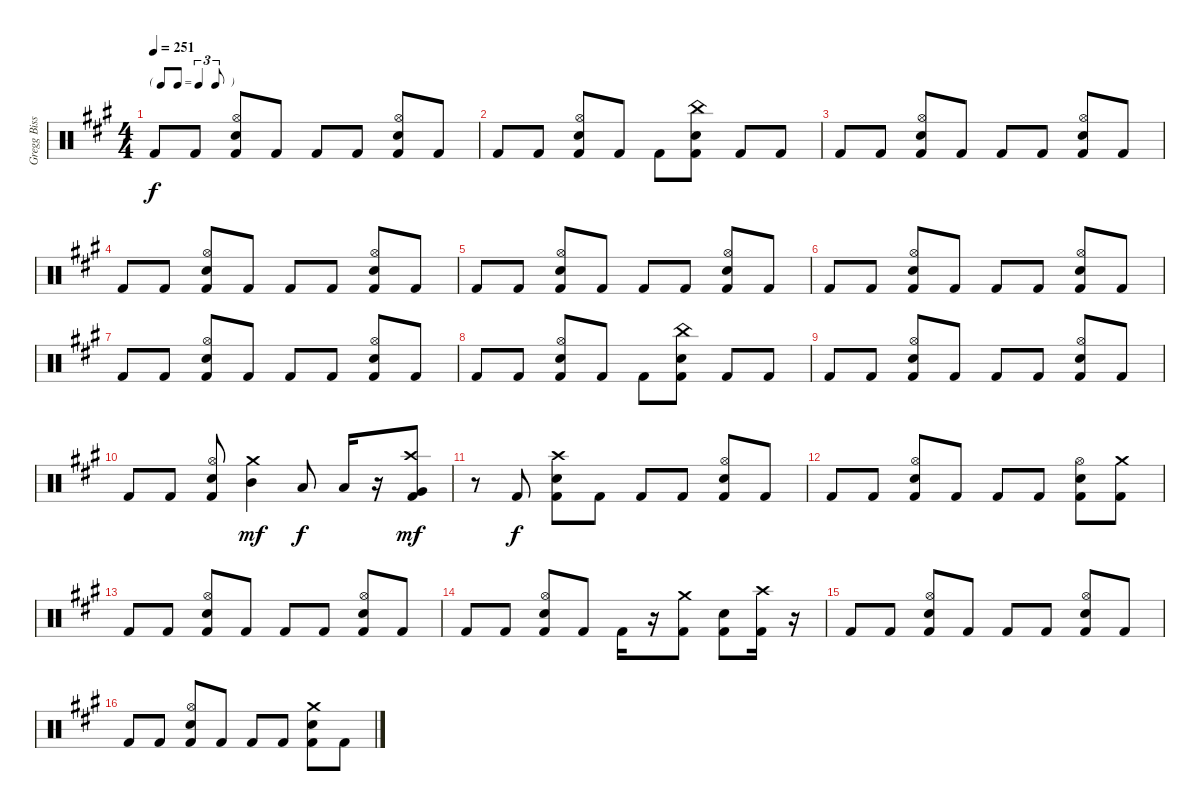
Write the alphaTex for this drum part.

\track ("Gregg Bissonette" "Gregg Biss") {instrument percussion}
\staff {score}
\articulation defaults
\ts (4 4)
\tf triplet8th
\tempo 251
\clef neutral
\ks f#minor "Kick (hit) 2".8{dy f} "Kick (hit) 2".8
("Hi-Hat (open)" "Electric Snare (hit)" "Kick (hit) 2").8 "Kick (hit) 2".8 "Kick (hit) 2".8 "Kick (hit) 2".8 ("Hi-Hat (open)" "Electric Snare (hit)" "Kick (hit) 2").8 "Kick (hit) 2".8 |
"Kick (hit) 2".8 "Kick (hit) 2".8 ("Hi-Hat (open)" "Electric Snare (hit)" "Kick (hit) 2").8 "Kick (hit) 2".8 "Kick (hit) 2".8 ("China (hit)" "Electric Snare (hit)" "Kick (hit) 2").8 "Kick (hit) 2".8 "Kick (hit) 2".8 |
"Kick (hit) 2".8 "Kick (hit) 2".8 ("Hi-Hat (open)" "Electric Snare (hit)" "Kick (hit) 2").8 "Kick (hit) 2".8 "Kick (hit) 2".8 "Kick (hit) 2".8 ("Hi-Hat (open)" "Electric Snare (hit)" "Kick (hit) 2").8 "Kick (hit) 2".8 |
"Kick (hit) 2".8 "Kick (hit) 2".8 ("Hi-Hat (open)" "Electric Snare (hit)" "Kick (hit) 2").8 "Kick (hit) 2".8 "Kick (hit) 2".8 "Kick (hit) 2".8 ("Hi-Hat (open)" "Electric Snare (hit)" "Kick (hit) 2").8 "Kick (hit) 2".8 |
"Kick (hit) 2".8 "Kick (hit) 2".8 ("Hi-Hat (open)" "Electric Snare (hit)" "Kick (hit) 2").8 "Kick (hit) 2".8 "Kick (hit) 2".8 "Kick (hit) 2".8 ("Hi-Hat (open)" "Electric Snare (hit)" "Kick (hit) 2").8 "Kick (hit) 2".8 |
"Kick (hit) 2".8 "Kick (hit) 2".8 ("Hi-Hat (open)" "Electric Snare (hit)" "Kick (hit) 2").8 "Kick (hit) 2".8 "Kick (hit) 2".8 "Kick (hit) 2".8 ("Hi-Hat (open)" "Electric Snare (hit)" "Kick (hit) 2").8 "Kick (hit) 2".8 |
"Kick (hit) 2".8 "Kick (hit) 2".8 ("Hi-Hat (open)" "Electric Snare (hit)" "Kick (hit) 2").8 "Kick (hit) 2".8 "Kick (hit) 2".8 "Kick (hit) 2".8 ("Hi-Hat (open)" "Electric Snare (hit)" "Kick (hit) 2").8 "Kick (hit) 2".8 |
"Kick (hit) 2".8 "Kick (hit) 2".8 ("Hi-Hat (open)" "Electric Snare (hit)" "Kick (hit) 2").8 "Kick (hit) 2".8 "Kick (hit) 2".8 ("China (hit)" "Electric Snare (hit)" "Kick (hit) 2").8 "Kick (hit) 2".8 "Kick (hit) 2".8 |
"Kick (hit) 2".8 "Kick (hit) 2".8 ("Hi-Hat (open)" "Electric Snare (hit)" "Kick (hit) 2").8 "Kick (hit) 2".8 "Kick (hit) 2".8 "Kick (hit) 2".8 ("Hi-Hat (open)" "Electric Snare (hit)" "Kick (hit) 2").8 "Kick (hit) 2".8 |
"Kick (hit) 2".8 "Kick (hit) 2".8 ("Hi-Hat (open)" "Electric Snare (hit)" "Kick (hit) 2").8 ("Crash medium (hit)" "Mid Tom (hit)").4{dy mf} "Low Tom (hit)".8{dy f} "Low Tom (hit)".16 r.16 ("Crash high (hit)" "Very Low Tom (hit)" "Kick (hit) 2").8{dy mf} |
r.8 "Kick (hit) 2".8{dy f} ("Crash high (hit)" "Electric Snare (hit)" "Kick (hit) 2").8 "Kick (hit) 2".8 "Kick (hit) 2".8 "Kick (hit) 2".8 ("Hi-Hat (open)" "Electric Snare (hit)" "Kick (hit) 2").8 "Kick (hit) 2".8 |
"Kick (hit) 2".8 "Kick (hit) 2".8 ("Hi-Hat (open)" "Electric Snare (hit)" "Kick (hit) 2").8 "Kick (hit) 2".8 "Kick (hit) 2".8 "Kick (hit) 2".8 ("Hi-Hat (open)" "Electric Snare (hit)" "Kick (hit) 2").8 ("Crash medium (hit)" "Kick (hit) 2").8 |
"Kick (hit) 2".8 "Kick (hit) 2".8 ("Hi-Hat (open)" "Electric Snare (hit)" "Kick (hit) 2").8 "Kick (hit) 2".8 "Kick (hit) 2".8 "Kick (hit) 2".8 ("Hi-Hat (open)" "Electric Snare (hit)" "Kick (hit) 2").8 "Kick (hit) 2".8 |
"Kick (hit) 2".8 "Kick (hit) 2".8 ("Hi-Hat (open)" "Electric Snare (hit)" "Kick (hit) 2").8 "Kick (hit) 2".8 "Kick (hit) 2".16 r.16 ("Crash medium (hit)" "Kick (hit) 2").8 ("Electric Snare (hit)" "Kick (hit) 2").8 ("Crash high (hit)" "Kick (hit) 2").16 r.16 |
"Kick (hit) 2".8 "Kick (hit) 2".8 ("Hi-Hat (open)" "Electric Snare (hit)" "Kick (hit) 2").8 "Kick (hit) 2".8 "Kick (hit) 2".8 "Kick (hit) 2".8 ("Hi-Hat (open)" "Electric Snare (hit)" "Kick (hit) 2").8 "Kick (hit) 2".8 |
"Kick (hit) 2".8 "Kick (hit) 2".8 ("Hi-Hat (open)" "Electric Snare (hit)" "Kick (hit) 2").8 "Kick (hit) 2".8 "Kick (hit) 2".8 "Kick (hit) 2".8 ("Crash medium (hit)" "Electric Snare (hit)" "Kick (hit) 2").8 "Kick (hit) 2".8
